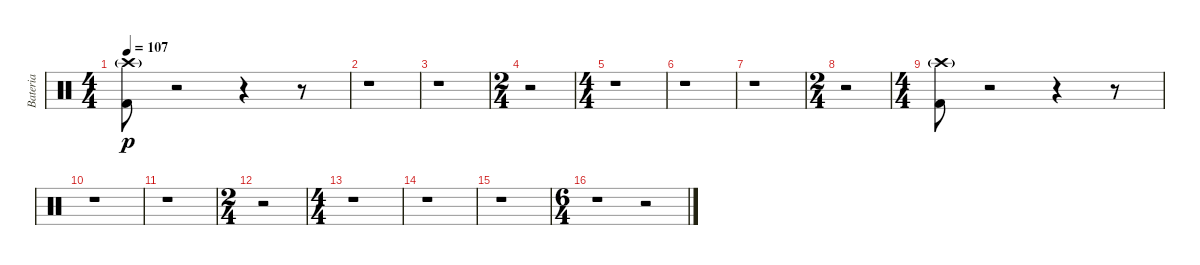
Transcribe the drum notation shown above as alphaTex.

\track ("Bateria" "Bateria") {instrument percussion}
\staff {score}
\articulation defaults
\ts (4 4)
\tempo 107
\clef neutral
\ks c
("Kick (hit) 2" "Crash high (hit)"{g}).8{dy p} r.2 r.4 r.8 |
r.1 |
r.1 |
\ts (2 4)
r.2 |
\ts (4 4)
r.1 |
r.1 |
r.1 |
\ts (2 4)
r.2 |
\ts (4 4)
("Kick (hit) 2" "Crash high (hit)"{g}).8 r.2 r.4 r.8 |
r.1 |
r.1 |
\ts (2 4)
r.2 |
\ts (4 4)
r.1 |
r.1 |
r.1 |
\ts (6 4)
r.1 r.2
